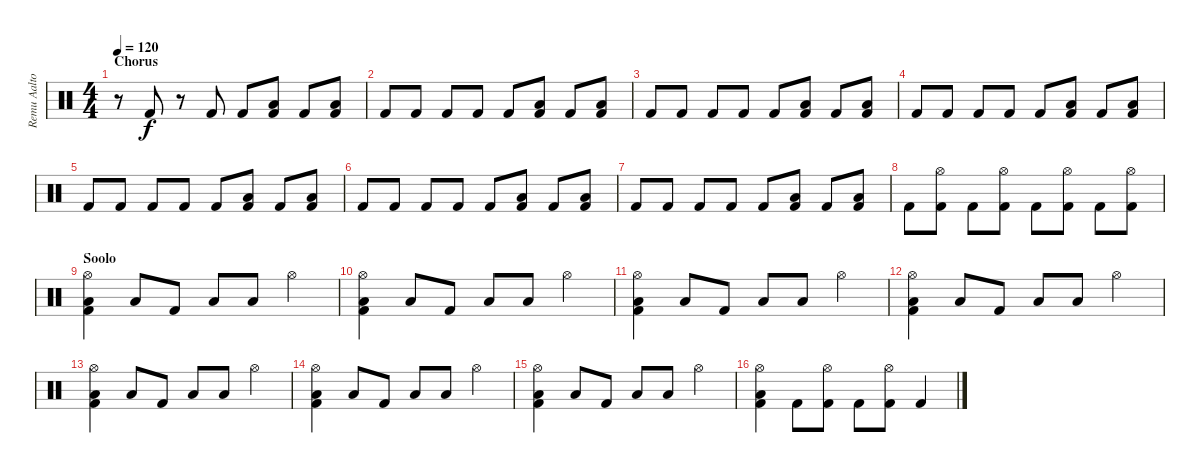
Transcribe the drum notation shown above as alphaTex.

\track ("Remu Aaltonen" "Remu Aalto") {instrument percussion}
\staff {score}
\articulation defaults
\ts (4 4)
\section ("" "Chorus")
\tempo 120
\clef neutral
\ks c
r.8{dy f} "Kick (hit) 2".8 r.8 "Kick (hit) 2".8 "Kick (hit) 2".8 ("Low Tom (hit)" "Kick (hit) 2").8 "Kick (hit) 2".8 ("Low Tom (hit)" "Kick (hit) 2").8 |
"Kick (hit) 2".8 "Kick (hit) 2".8 "Kick (hit) 2".8 "Kick (hit) 2".8 "Kick (hit) 2".8 ("Low Tom (hit)" "Kick (hit) 2").8 "Kick (hit) 2".8 ("Low Tom (hit)" "Kick (hit) 2").8 |
"Kick (hit) 2".8 "Kick (hit) 2".8 "Kick (hit) 2".8 "Kick (hit) 2".8 "Kick (hit) 2".8 ("Low Tom (hit)" "Kick (hit) 2").8 "Kick (hit) 2".8 ("Low Tom (hit)" "Kick (hit) 2").8 |
"Kick (hit) 2".8 "Kick (hit) 2".8 "Kick (hit) 2".8 "Kick (hit) 2".8 "Kick (hit) 2".8 ("Low Tom (hit)" "Kick (hit) 2").8 "Kick (hit) 2".8 ("Low Tom (hit)" "Kick (hit) 2").8 |
"Kick (hit) 2".8 "Kick (hit) 2".8 "Kick (hit) 2".8 "Kick (hit) 2".8 "Kick (hit) 2".8 ("Low Tom (hit)" "Kick (hit) 2").8 "Kick (hit) 2".8 ("Low Tom (hit)" "Kick (hit) 2").8 |
"Kick (hit) 2".8 "Kick (hit) 2".8 "Kick (hit) 2".8 "Kick (hit) 2".8 "Kick (hit) 2".8 ("Low Tom (hit)" "Kick (hit) 2").8 "Kick (hit) 2".8 ("Low Tom (hit)" "Kick (hit) 2").8 |
"Kick (hit) 2".8 "Kick (hit) 2".8 "Kick (hit) 2".8 "Kick (hit) 2".8 "Kick (hit) 2".8 ("Low Tom (hit)" "Kick (hit) 2").8 "Kick (hit) 2".8 ("Low Tom (hit)" "Kick (hit) 2").8 |
"Kick (hit) 2".8 ("Kick (hit) 2" "Hi-Hat (open)").8 "Kick (hit) 2".8 ("Kick (hit) 2" "Hi-Hat (open)").8 "Kick (hit) 2".8 ("Kick (hit) 2" "Hi-Hat (open)").8 "Kick (hit) 2".8 ("Kick (hit) 2" "Hi-Hat (open)").8 |
\section ("" "Soolo")
("Hi-Hat (open)" "Kick (hit) 2" "Low Tom (hit)").4 "Low Tom (hit)".8 "Kick (hit) 2".8 "Low Tom (hit)".8 "Low Tom (hit)".8 "Hi-Hat (open)".4 |
("Hi-Hat (open)" "Kick (hit) 2" "Low Tom (hit)").4 "Low Tom (hit)".8 "Kick (hit) 2".8 "Low Tom (hit)".8 "Low Tom (hit)".8 "Hi-Hat (open)".4 |
("Hi-Hat (open)" "Kick (hit) 2" "Low Tom (hit)").4 "Low Tom (hit)".8 "Kick (hit) 2".8 "Low Tom (hit)".8 "Low Tom (hit)".8 "Hi-Hat (open)".4 |
("Hi-Hat (open)" "Kick (hit) 2" "Low Tom (hit)").4 "Low Tom (hit)".8 "Kick (hit) 2".8 "Low Tom (hit)".8 "Low Tom (hit)".8 "Hi-Hat (open)".4 |
("Hi-Hat (open)" "Kick (hit) 2" "Low Tom (hit)").4 "Low Tom (hit)".8 "Kick (hit) 2".8 "Low Tom (hit)".8 "Low Tom (hit)".8 "Hi-Hat (open)".4 |
("Hi-Hat (open)" "Kick (hit) 2" "Low Tom (hit)").4 "Low Tom (hit)".8 "Kick (hit) 2".8 "Low Tom (hit)".8 "Low Tom (hit)".8 "Hi-Hat (open)".4 |
("Hi-Hat (open)" "Kick (hit) 2" "Low Tom (hit)").4 "Low Tom (hit)".8 "Kick (hit) 2".8 "Low Tom (hit)".8 "Low Tom (hit)".8 "Hi-Hat (open)".4 |
("Hi-Hat (open)" "Kick (hit) 2" "Low Tom (hit)").4 "Kick (hit) 2".8 ("Kick (hit) 2" "Hi-Hat (open)").8 "Kick (hit) 2".8 ("Kick (hit) 2" "Hi-Hat (open)").8 "Kick (hit) 2".4
